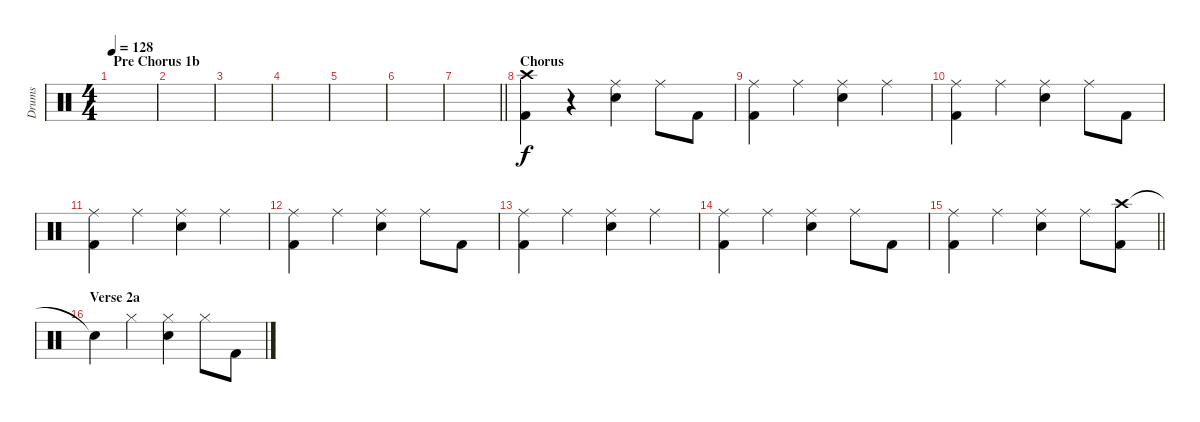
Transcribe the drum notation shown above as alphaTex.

\track ("Drums" "Drums") {instrument percussion}
\staff {score}
\articulation defaults
\ts (4 4)
\section ("" "Pre Chorus 1b")
\tempo 128
\clef neutral
\ks c
|
|
|
|
|
|
\barLineRight lightlight
|
\section ("" "Chorus")
("Crash high (hit)" "Kick (hit) 2").4 r.4 ("Ride (middle)" "Snare (hit) 2").4 "Ride (middle)".8 "Kick (hit) 2".8 |
("Ride (middle)" "Kick (hit) 2").4 "Ride (middle)".4 ("Ride (middle)" "Snare (hit) 2").4 "Ride (middle)".4 |
("Ride (middle)" "Kick (hit) 2").4 "Ride (middle)".4 ("Ride (middle)" "Snare (hit) 2").4 "Ride (middle)".8 "Kick (hit) 2".8 |
("Ride (middle)" "Kick (hit) 2").4 "Ride (middle)".4 ("Ride (middle)" "Snare (hit) 2").4 "Ride (middle)".4 |
("Ride (middle)" "Kick (hit) 2").4 "Ride (middle)".4 ("Ride (middle)" "Snare (hit) 2").4 "Ride (middle)".8 "Kick (hit) 2".8 |
("Ride (middle)" "Kick (hit) 2").4 "Ride (middle)".4 ("Ride (middle)" "Snare (hit) 2").4 "Ride (middle)".4 |
("Ride (middle)" "Kick (hit) 2").4 "Ride (middle)".4 ("Ride (middle)" "Snare (hit) 2").4 "Ride (middle)".8 "Kick (hit) 2".8 |
\barLineRight lightlight
("Ride (middle)" "Kick (hit) 2").4 "Ride (middle)".4 ("Ride (middle)" "Snare (hit) 2").4 "Ride (middle)".8 ("Crash high (hit)" "Kick (hit) 2").8 |
\section ("" "Verse 2a")
"Snare (hit)"{t}.4 "Hi-Hat (closed)".4 ("Hi-Hat (closed)" "Snare (hit) 2").4 "Hi-Hat (closed)".8 "Kick (hit) 2".8
